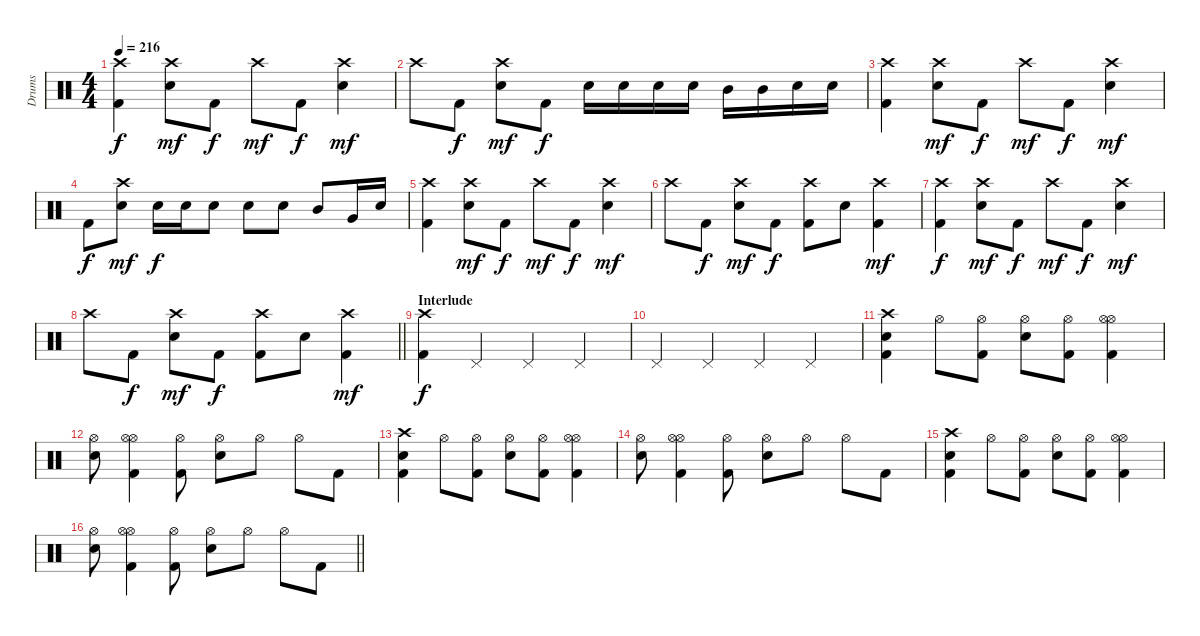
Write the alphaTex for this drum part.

\track ("Drums" "Drums") {instrument percussion}
\staff {score}
\articulation defaults
\ts (4 4)
\tempo 216
\clef neutral
\ks c
("Crash high (hit)" "Kick (hit) 2").4{dy f} ("Crash high (hit)" "Electric Snare (hit)").8{dy mf} "Kick (hit) 2".8{dy f} "Crash high (hit)".8{dy mf} "Kick (hit) 2".8{dy f} ("Crash high (hit)" "Electric Snare (hit)").4{dy mf} |
"Crash high (hit)".8 "Kick (hit) 2".8{dy f} ("Crash high (hit)" "Electric Snare (hit)").8{dy mf} "Kick (hit) 2".8{dy f} "Electric Snare (hit)".16 "Electric Snare (hit)".16 "Electric Snare (hit)".16 "Electric Snare (hit)".16 "Mid Tom (hit)".16 "Mid Tom (hit)".16 "Electric Snare (hit)".16 "Electric Snare (hit)".16 |
("Crash high (hit)" "Kick (hit) 2").4 ("Crash high (hit)" "Electric Snare (hit)").8{dy mf} "Kick (hit) 2".8{dy f} "Crash high (hit)".8{dy mf} "Kick (hit) 2".8{dy f} ("Crash high (hit)" "Electric Snare (hit)").4{dy mf} |
"Kick (hit) 2".8{dy f} ("Crash high (hit)" "Electric Snare (hit)").8{dy mf} "Electric Snare (hit)".16{dy f} "Electric Snare (hit)".16 "Electric Snare (hit)".8 "Electric Snare (hit)".8 "Electric Snare (hit)".8 "Mid Tom (hit)".8 "Very Low Tom (hit)".16 "Electric Snare (hit)".16 |
("Crash high (hit)" "Kick (hit) 2").4 ("Crash high (hit)" "Electric Snare (hit)").8{dy mf} "Kick (hit) 2".8{dy f} "Crash high (hit)".8{dy mf} "Kick (hit) 2".8{dy f} ("Crash high (hit)" "Electric Snare (hit)").4{dy mf} |
"Crash high (hit)".8 "Kick (hit) 2".8{dy f} ("Crash high (hit)" "Electric Snare (hit)").8{dy mf} "Kick (hit) 2".8{dy f} ("Crash high (hit)" "Kick (hit) 2").8 "Electric Snare (hit)".8 ("Crash high (hit)" "Kick (hit) 2").4{dy mf} |
("Crash high (hit)" "Kick (hit) 2").4{dy f} ("Crash high (hit)" "Electric Snare (hit)").8{dy mf} "Kick (hit) 2".8{dy f} "Crash high (hit)".8{dy mf} "Kick (hit) 2".8{dy f} ("Crash high (hit)" "Electric Snare (hit)").4{dy mf} |
\barLineRight lightlight "Crash high (hit)".8 "Kick (hit) 2".8{dy f}
("Crash high (hit)" "Electric Snare (hit)").8{dy mf} "Kick (hit) 2".8{dy f} ("Crash high (hit)" "Kick (hit) 2").8 "Electric Snare (hit)".8 ("Crash high (hit)" "Kick (hit) 2").4{dy mf} |
\section ("" "Interlude")
("Crash high (hit)" "Kick (hit) 2").4{dy f} "Pedal Hi-Hat (hit)".4 "Pedal Hi-Hat (hit)".4 "Pedal Hi-Hat (hit)".4 |
"Pedal Hi-Hat (hit)".4 "Pedal Hi-Hat (hit)".4 "Pedal Hi-Hat (hit)".4 "Pedal Hi-Hat (hit)".4 |
("Crash high (hit)" "Electric Snare (hit)" "Kick (hit) 2").4 "Hi-Hat (open)".8 ("Hi-Hat (open)" "Kick (hit) 2").8 ("Hi-Hat (open)" "Electric Snare (hit)").8 ("Hi-Hat (open)" "Kick (hit) 2").8 ("Hi-Hat (open)" "Hi-Hat (open)" "Kick (hit) 2").4 |
("Hi-Hat (open)" "Electric Snare (hit)").8 ("Hi-Hat (open)" "Hi-Hat (open)" "Kick (hit) 2").4 ("Hi-Hat (open)" "Kick (hit) 2").8 ("Hi-Hat (open)" "Electric Snare (hit)").8 "Hi-Hat (open)".8 "Hi-Hat (open)".8 "Kick (hit) 2".8 |
("Crash high (hit)" "Electric Snare (hit)" "Kick (hit) 2").4 "Hi-Hat (open)".8 ("Hi-Hat (open)" "Kick (hit) 2").8 ("Hi-Hat (open)" "Electric Snare (hit)").8 ("Hi-Hat (open)" "Kick (hit) 2").8 ("Hi-Hat (open)" "Hi-Hat (open)" "Kick (hit) 2").4 |
("Hi-Hat (open)" "Electric Snare (hit)").8 ("Hi-Hat (open)" "Hi-Hat (open)" "Kick (hit) 2").4 ("Hi-Hat (open)" "Kick (hit) 2").8 ("Hi-Hat (open)" "Electric Snare (hit)").8 "Hi-Hat (open)".8 "Hi-Hat (open)".8 "Kick (hit) 2".8 |
("Crash high (hit)" "Electric Snare (hit)" "Kick (hit) 2").4 "Hi-Hat (open)".8 ("Hi-Hat (open)" "Kick (hit) 2").8 ("Hi-Hat (open)" "Electric Snare (hit)").8 ("Hi-Hat (open)" "Kick (hit) 2").8 ("Hi-Hat (open)" "Hi-Hat (open)" "Kick (hit) 2").4 |
\barLineRight lightlight
("Hi-Hat (open)" "Electric Snare (hit)").8 ("Hi-Hat (open)" "Hi-Hat (open)" "Kick (hit) 2").4 ("Hi-Hat (open)" "Kick (hit) 2").8 ("Hi-Hat (open)" "Electric Snare (hit)").8 "Hi-Hat (open)".8 "Hi-Hat (open)".8 "Kick (hit) 2".8
